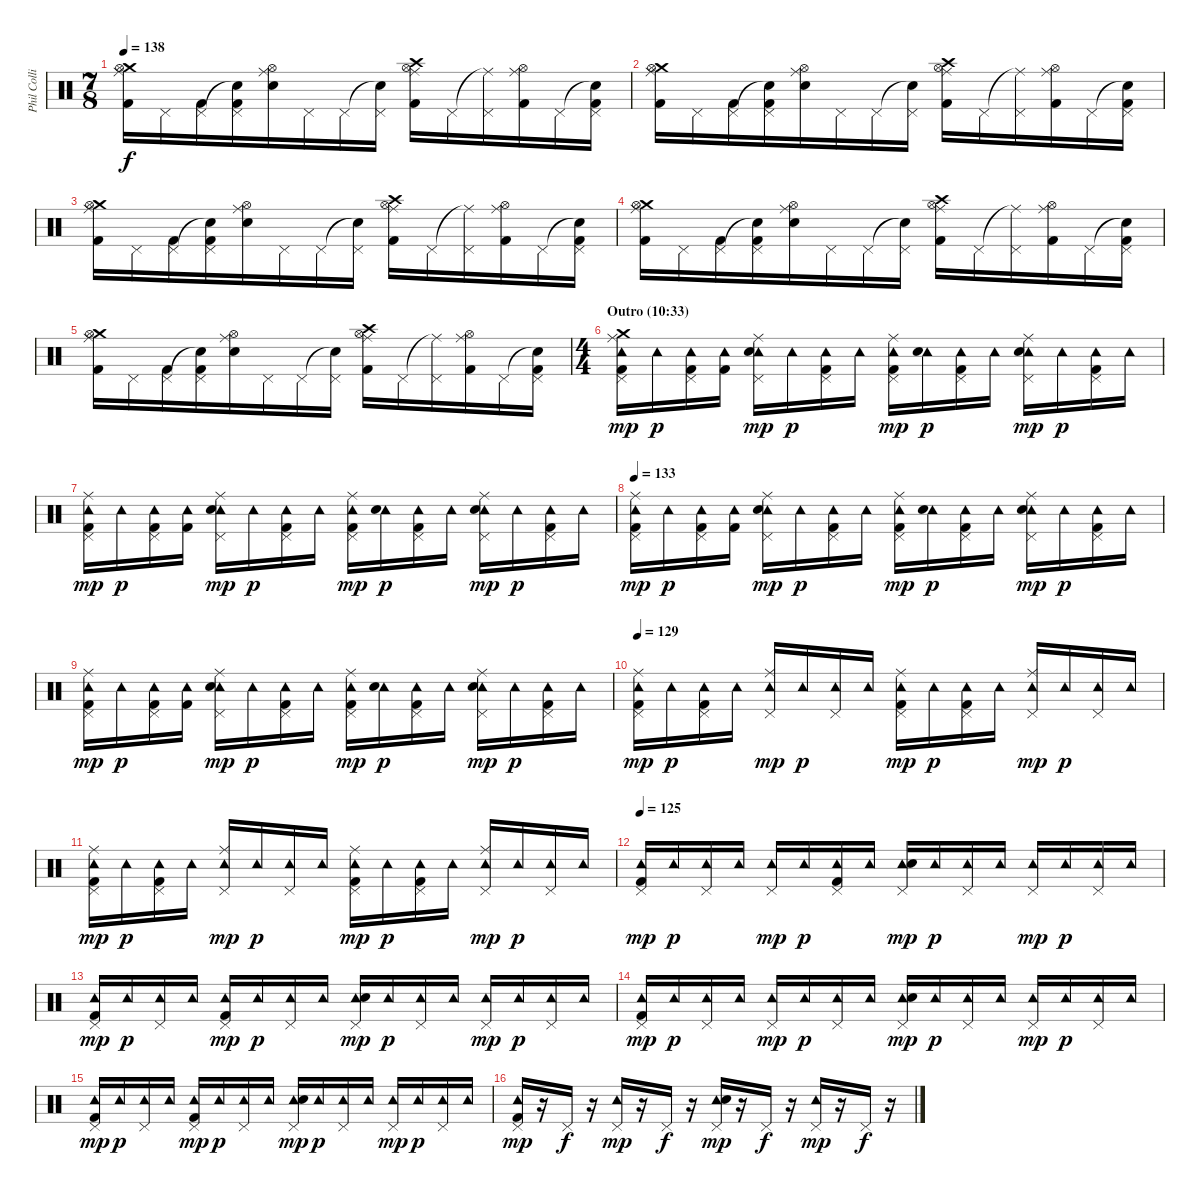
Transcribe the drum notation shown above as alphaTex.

\track ("Phil Collins (drums)" "Phil Colli") {instrument percussion}
\staff {score}
\articulation defaults
\ts (7 8)
\tempo 138
\clef neutral
\ks c
("Crash medium (hit)" "Ride (middle)" "Hi-Hat (open)" "Kick (hit) 2").16{dy f} "Pedal Hi-Hat (hit)".16 ("Pedal Hi-Hat (hit)" "Kick (hit) 2").16 ("Snare (hit)"{t} "Pedal Hi-Hat (hit)" "Kick (hit) 2").16 ("Ride (middle)" "Hi-Hat (open)" "Electric Snare (hit)").16 "Pedal Hi-Hat (hit)".16 "Pedal Hi-Hat (hit)".16 ("Snare (hit)"{t} "Pedal Hi-Hat (hit)").16 ("Crash high (hit)" "Ride (middle)" "Hi-Hat (open)" "Kick (hit) 2").16 "Pedal Hi-Hat (hit)".16 ("Ride (middle)"{t} "Pedal Hi-Hat (hit)").16 ("Ride (middle)" "Hi-Hat (open)" "Kick (hit) 2").16 "Pedal Hi-Hat (hit)".16 ("Snare (hit)"{t} "Pedal Hi-Hat (hit)" "Kick (hit) 2").16 |
("Crash medium (hit)" "Ride (middle)" "Hi-Hat (open)" "Kick (hit) 2").16 "Pedal Hi-Hat (hit)".16 ("Pedal Hi-Hat (hit)" "Kick (hit) 2").16 ("Snare (hit)"{t} "Pedal Hi-Hat (hit)" "Kick (hit) 2").16 ("Ride (middle)" "Hi-Hat (open)" "Electric Snare (hit)").16 "Pedal Hi-Hat (hit)".16 "Pedal Hi-Hat (hit)".16 ("Snare (hit)"{t} "Pedal Hi-Hat (hit)").16 ("Crash high (hit)" "Ride (middle)" "Hi-Hat (open)" "Kick (hit) 2").16 "Pedal Hi-Hat (hit)".16 ("Ride (middle)"{t} "Pedal Hi-Hat (hit)").16 ("Ride (middle)" "Hi-Hat (open)" "Kick (hit) 2").16 "Pedal Hi-Hat (hit)".16 ("Snare (hit)"{t} "Pedal Hi-Hat (hit)" "Kick (hit) 2").16 |
("Crash medium (hit)" "Ride (middle)" "Hi-Hat (open)" "Kick (hit) 2").16 "Pedal Hi-Hat (hit)".16 ("Pedal Hi-Hat (hit)" "Kick (hit) 2").16 ("Snare (hit)"{t} "Pedal Hi-Hat (hit)" "Kick (hit) 2").16 ("Ride (middle)" "Hi-Hat (open)" "Electric Snare (hit)").16 "Pedal Hi-Hat (hit)".16 "Pedal Hi-Hat (hit)".16 ("Snare (hit)"{t} "Pedal Hi-Hat (hit)").16 ("Crash high (hit)" "Ride (middle)" "Hi-Hat (open)" "Kick (hit) 2").16 "Pedal Hi-Hat (hit)".16 ("Ride (middle)"{t} "Pedal Hi-Hat (hit)").16 ("Ride (middle)" "Hi-Hat (open)" "Kick (hit) 2").16 "Pedal Hi-Hat (hit)".16 ("Snare (hit)"{t} "Pedal Hi-Hat (hit)" "Kick (hit) 2").16 |
("Crash medium (hit)" "Ride (middle)" "Hi-Hat (open)" "Kick (hit) 2").16 "Pedal Hi-Hat (hit)".16 ("Pedal Hi-Hat (hit)" "Kick (hit) 2").16 ("Snare (hit)"{t} "Pedal Hi-Hat (hit)" "Kick (hit) 2").16 ("Ride (middle)" "Hi-Hat (open)" "Electric Snare (hit)").16 "Pedal Hi-Hat (hit)".16 "Pedal Hi-Hat (hit)".16 ("Snare (hit)"{t} "Pedal Hi-Hat (hit)").16 ("Crash high (hit)" "Ride (middle)" "Hi-Hat (open)" "Kick (hit) 2").16 "Pedal Hi-Hat (hit)".16 ("Ride (middle)"{t} "Pedal Hi-Hat (hit)").16 ("Ride (middle)" "Hi-Hat (open)" "Kick (hit) 2").16 "Pedal Hi-Hat (hit)".16 ("Snare (hit)"{t} "Pedal Hi-Hat (hit)" "Kick (hit) 2").16 |
("Crash medium (hit)" "Ride (middle)" "Hi-Hat (open)" "Kick (hit) 2").16 "Pedal Hi-Hat (hit)".16 ("Pedal Hi-Hat (hit)" "Kick (hit) 2").16 ("Snare (hit)"{t} "Pedal Hi-Hat (hit)" "Kick (hit) 2").16 ("Ride (middle)" "Hi-Hat (open)" "Electric Snare (hit)").16 "Pedal Hi-Hat (hit)".16 "Pedal Hi-Hat (hit)".16 ("Snare (hit)"{t} "Pedal Hi-Hat (hit)").16 ("Crash high (hit)" "Ride (middle)" "Hi-Hat (open)" "Kick (hit) 2").16 "Pedal Hi-Hat (hit)".16 ("Ride (middle)"{t} "Pedal Hi-Hat (hit)").16 ("Ride (middle)" "Hi-Hat (open)" "Kick (hit) 2").16 "Pedal Hi-Hat (hit)".16 ("Snare (hit)"{t} "Pedal Hi-Hat (hit)" "Kick (hit) 2").16 |
\ts (4 4)
\section ("" "Outro (10:33)")
("Tambourine (hit)" "Crash medium (hit)" "Ride (middle)" "Pedal Hi-Hat (hit)" "Kick (hit) 2").16{dy mp} "Tambourine (hit)".16{dy p} ("Tambourine (hit)" "Pedal Hi-Hat (hit)" "Kick (hit) 2").16 ("Tambourine (hit)" "Kick (hit) 2").16 ("Tambourine (hit)" "Ride (middle)" "Pedal Hi-Hat (hit)" "Electric Snare (hit)").16{dy mp} "Tambourine (hit)".16{dy p} ("Tambourine (hit)" "Pedal Hi-Hat (hit)" "Kick (hit) 2").16 "Tambourine (hit)".16 ("Tambourine (hit)" "Ride (middle)" "Pedal Hi-Hat (hit)" "Kick (hit) 2").16{dy mp} ("Tambourine (hit)" "Electric Snare (hit)").16{dy p} ("Tambourine (hit)" "Pedal Hi-Hat (hit)" "Kick (hit) 2").16 "Tambourine (hit)".16 ("Tambourine (hit)" "Ride (middle)" "Pedal Hi-Hat (hit)" "Electric Snare (hit)").16{dy mp} "Tambourine (hit)".16{dy p} ("Tambourine (hit)" "Pedal Hi-Hat (hit)" "Kick (hit) 2").16 "Tambourine (hit)".16 |
("Tambourine (hit)" "Ride (middle)" "Pedal Hi-Hat (hit)" "Kick (hit) 2").16{dy mp} "Tambourine (hit)".16{dy p} ("Tambourine (hit)" "Pedal Hi-Hat (hit)" "Kick (hit) 2").16 ("Tambourine (hit)" "Kick (hit) 2").16 ("Tambourine (hit)" "Ride (middle)" "Pedal Hi-Hat (hit)" "Electric Snare (hit)").16{dy mp} "Tambourine (hit)".16{dy p} ("Tambourine (hit)" "Pedal Hi-Hat (hit)" "Kick (hit) 2").16 "Tambourine (hit)".16 ("Tambourine (hit)" "Ride (middle)" "Pedal Hi-Hat (hit)" "Kick (hit) 2").16{dy mp} ("Tambourine (hit)" "Electric Snare (hit)").16{dy p} ("Tambourine (hit)" "Pedal Hi-Hat (hit)" "Kick (hit) 2").16 "Tambourine (hit)".16 ("Tambourine (hit)" "Ride (middle)" "Pedal Hi-Hat (hit)" "Electric Snare (hit)").16{dy mp} "Tambourine (hit)".16{dy p} ("Tambourine (hit)" "Pedal Hi-Hat (hit)" "Kick (hit) 2").16 "Tambourine (hit)".16 |
\tempo 133
("Tambourine (hit)" "Ride (middle)" "Pedal Hi-Hat (hit)" "Kick (hit) 2").16{dy mp} "Tambourine (hit)".16{dy p} ("Tambourine (hit)" "Pedal Hi-Hat (hit)" "Kick (hit) 2").16 ("Tambourine (hit)" "Kick (hit) 2").16 ("Tambourine (hit)" "Ride (middle)" "Pedal Hi-Hat (hit)" "Electric Snare (hit)").16{dy mp} "Tambourine (hit)".16{dy p} ("Tambourine (hit)" "Pedal Hi-Hat (hit)" "Kick (hit) 2").16 "Tambourine (hit)".16 ("Tambourine (hit)" "Ride (middle)" "Pedal Hi-Hat (hit)" "Kick (hit) 2").16{dy mp} ("Tambourine (hit)" "Electric Snare (hit)").16{dy p} ("Tambourine (hit)" "Pedal Hi-Hat (hit)" "Kick (hit) 2").16 "Tambourine (hit)".16 ("Tambourine (hit)" "Ride (middle)" "Pedal Hi-Hat (hit)" "Electric Snare (hit)").16{dy mp} "Tambourine (hit)".16{dy p} ("Tambourine (hit)" "Pedal Hi-Hat (hit)" "Kick (hit) 2").16 "Tambourine (hit)".16 |
("Tambourine (hit)" "Ride (middle)" "Pedal Hi-Hat (hit)" "Kick (hit) 2").16{dy mp} "Tambourine (hit)".16{dy p} ("Tambourine (hit)" "Pedal Hi-Hat (hit)" "Kick (hit) 2").16 ("Tambourine (hit)" "Kick (hit) 2").16 ("Tambourine (hit)" "Ride (middle)" "Pedal Hi-Hat (hit)" "Electric Snare (hit)").16{dy mp} "Tambourine (hit)".16{dy p} ("Tambourine (hit)" "Pedal Hi-Hat (hit)" "Kick (hit) 2").16 "Tambourine (hit)".16 ("Tambourine (hit)" "Ride (middle)" "Pedal Hi-Hat (hit)" "Kick (hit) 2").16{dy mp} ("Tambourine (hit)" "Electric Snare (hit)").16{dy p} ("Tambourine (hit)" "Pedal Hi-Hat (hit)" "Kick (hit) 2").16 "Tambourine (hit)".16 ("Tambourine (hit)" "Ride (middle)" "Pedal Hi-Hat (hit)" "Electric Snare (hit)").16{dy mp} "Tambourine (hit)".16{dy p} ("Tambourine (hit)" "Pedal Hi-Hat (hit)" "Kick (hit) 2").16 "Tambourine (hit)".16 |
\tempo 129
("Tambourine (hit)" "Ride (middle)" "Pedal Hi-Hat (hit)" "Kick (hit) 2").16{dy mp} "Tambourine (hit)".16{dy p} ("Tambourine (hit)" "Pedal Hi-Hat (hit)" "Kick (hit) 2").16 "Tambourine (hit)".16 ("Tambourine (hit)" "Ride (middle)" "Pedal Hi-Hat (hit)").16{dy mp} "Tambourine (hit)".16{dy p} ("Tambourine (hit)" "Pedal Hi-Hat (hit)").16 "Tambourine (hit)".16 ("Tambourine (hit)" "Ride (middle)" "Pedal Hi-Hat (hit)" "Kick (hit) 2").16{dy mp} "Tambourine (hit)".16{dy p} ("Tambourine (hit)" "Pedal Hi-Hat (hit)" "Kick (hit) 2").16 "Tambourine (hit)".16 ("Tambourine (hit)" "Ride (middle)" "Pedal Hi-Hat (hit)").16{dy mp} "Tambourine (hit)".16{dy p} ("Tambourine (hit)" "Pedal Hi-Hat (hit)").16 "Tambourine (hit)".16 |
("Tambourine (hit)" "Ride (middle)" "Pedal Hi-Hat (hit)" "Kick (hit) 2").16{dy mp} "Tambourine (hit)".16{dy p} ("Tambourine (hit)" "Pedal Hi-Hat (hit)" "Kick (hit) 2").16 "Tambourine (hit)".16 ("Tambourine (hit)" "Ride (middle)" "Pedal Hi-Hat (hit)").16{dy mp} "Tambourine (hit)".16{dy p} ("Tambourine (hit)" "Pedal Hi-Hat (hit)").16 "Tambourine (hit)".16 ("Tambourine (hit)" "Ride (middle)" "Pedal Hi-Hat (hit)" "Kick (hit) 2").16{dy mp} "Tambourine (hit)".16{dy p} ("Tambourine (hit)" "Pedal Hi-Hat (hit)" "Kick (hit) 2").16 "Tambourine (hit)".16 ("Tambourine (hit)" "Ride (middle)" "Pedal Hi-Hat (hit)").16{dy mp} "Tambourine (hit)".16{dy p} ("Tambourine (hit)" "Pedal Hi-Hat (hit)").16 "Tambourine (hit)".16 |
\tempo 125
("Tambourine (hit)" "Pedal Hi-Hat (hit)" "Kick (hit) 2").16{dy mp} "Tambourine (hit)".16{dy p} ("Tambourine (hit)" "Pedal Hi-Hat (hit)").16 "Tambourine (hit)".16 ("Tambourine (hit)" "Pedal Hi-Hat (hit)").16{dy mp} "Tambourine (hit)".16{dy p} ("Tambourine (hit)" "Pedal Hi-Hat (hit)" "Kick (hit) 2").16 "Tambourine (hit)".16 ("Tambourine (hit)" "Pedal Hi-Hat (hit)" "Electric Snare (hit)").16{dy mp} "Tambourine (hit)".16{dy p} ("Tambourine (hit)" "Pedal Hi-Hat (hit)").16 "Tambourine (hit)".16 ("Tambourine (hit)" "Pedal Hi-Hat (hit)").16{dy mp} "Tambourine (hit)".16{dy p} ("Tambourine (hit)" "Pedal Hi-Hat (hit)").16 "Tambourine (hit)".16 |
("Tambourine (hit)" "Pedal Hi-Hat (hit)" "Kick (hit) 2").16{dy mp} "Tambourine (hit)".16{dy p} ("Tambourine (hit)" "Pedal Hi-Hat (hit)").16 "Tambourine (hit)".16 ("Tambourine (hit)" "Pedal Hi-Hat (hit)" "Kick (hit) 2").16{dy mp} "Tambourine (hit)".16{dy p} ("Tambourine (hit)" "Pedal Hi-Hat (hit)").16 "Tambourine (hit)".16 ("Tambourine (hit)" "Pedal Hi-Hat (hit)" "Electric Snare (hit)").16{dy mp} "Tambourine (hit)".16{dy p} ("Tambourine (hit)" "Pedal Hi-Hat (hit)").16 "Tambourine (hit)".16 ("Tambourine (hit)" "Pedal Hi-Hat (hit)").16{dy mp} "Tambourine (hit)".16{dy p} ("Tambourine (hit)" "Pedal Hi-Hat (hit)").16 "Tambourine (hit)".16 |
("Tambourine (hit)" "Pedal Hi-Hat (hit)" "Kick (hit) 2").16{dy mp volume 6} "Tambourine (hit)".16{dy p} ("Tambourine (hit)" "Pedal Hi-Hat (hit)").16 "Tambourine (hit)".16 ("Tambourine (hit)" "Pedal Hi-Hat (hit)").16{dy mp} "Tambourine (hit)".16{dy p} ("Tambourine (hit)" "Pedal Hi-Hat (hit)").16 "Tambourine (hit)".16 ("Tambourine (hit)" "Pedal Hi-Hat (hit)" "Electric Snare (hit)").16{dy mp} "Tambourine (hit)".16{dy p} ("Tambourine (hit)" "Pedal Hi-Hat (hit)").16 "Tambourine (hit)".16 ("Tambourine (hit)" "Pedal Hi-Hat (hit)").16{dy mp} "Tambourine (hit)".16{dy p} ("Tambourine (hit)" "Pedal Hi-Hat (hit)").16 "Tambourine (hit)".16 |
("Tambourine (hit)" "Pedal Hi-Hat (hit)" "Kick (hit) 2").16{dy mp} "Tambourine (hit)".16{dy p} ("Tambourine (hit)" "Pedal Hi-Hat (hit)").16 "Tambourine (hit)".16 ("Tambourine (hit)" "Pedal Hi-Hat (hit)" "Kick (hit) 2").16{dy mp} "Tambourine (hit)".16{dy p} ("Tambourine (hit)" "Pedal Hi-Hat (hit)").16 "Tambourine (hit)".16 ("Tambourine (hit)" "Pedal Hi-Hat (hit)" "Electric Snare (hit)").16{dy mp} "Tambourine (hit)".16{dy p} ("Tambourine (hit)" "Pedal Hi-Hat (hit)").16 "Tambourine (hit)".16 ("Tambourine (hit)" "Pedal Hi-Hat (hit)").16{dy mp} "Tambourine (hit)".16{dy p} ("Tambourine (hit)" "Pedal Hi-Hat (hit)").16 "Tambourine (hit)".16 |
("Tambourine (hit)" "Pedal Hi-Hat (hit)" "Kick (hit) 2").16{dy mp volume 4} r.16 "Pedal Hi-Hat (hit)".16{dy f} r.16 ("Tambourine (hit)" "Pedal Hi-Hat (hit)").16{dy mp} r.16 "Pedal Hi-Hat (hit)".16{dy f} r.16 ("Tambourine (hit)" "Pedal Hi-Hat (hit)" "Electric Snare (hit)").16{dy mp} r.16 "Pedal Hi-Hat (hit)".16{dy f} r.16 ("Tambourine (hit)" "Pedal Hi-Hat (hit)").16{dy mp} r.16 "Pedal Hi-Hat (hit)".16{dy f} r.16
